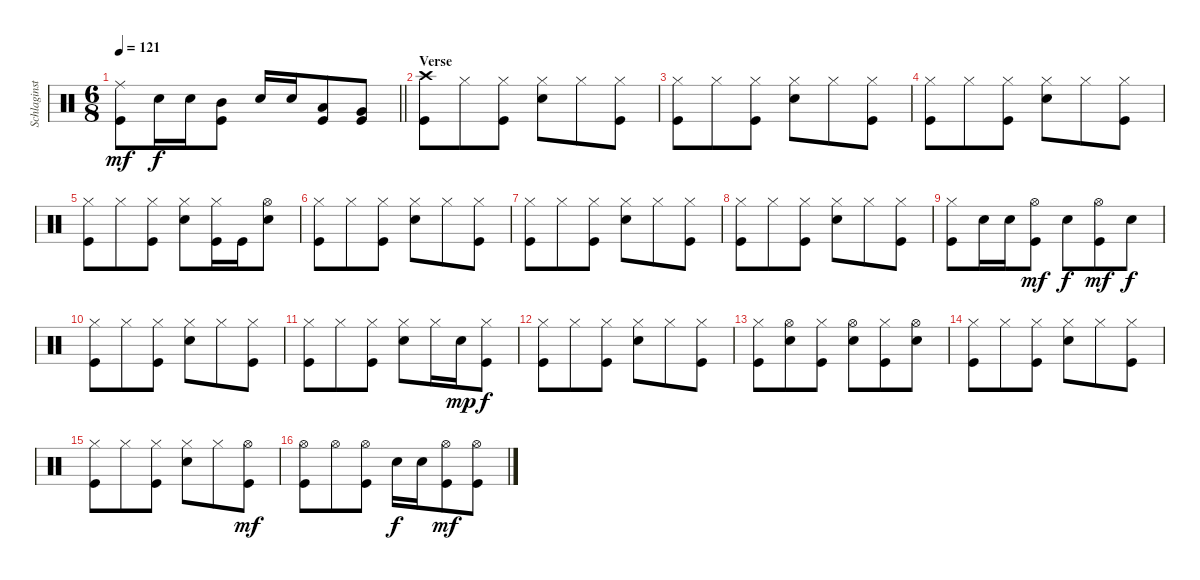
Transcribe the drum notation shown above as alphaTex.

\track ("Schlaginstrumente - Auswahl" "Schlaginst") {instrument percussion}
\staff {score}
\articulation defaults
\ts (6 8)
\tempo 121
\clef neutral
\barLineRight lightlight
\ks c
("Ride (middle)" "Kick (hit)").8{dy mf} "Snare (hit) 2".16{dy f} "Snare (hit) 2".16 ("Mid Tom (hit)" "Kick (hit)").8 "Snare (hit) 2".16 "Snare (hit) 2".16 ("Low Tom (hit)" "Kick (hit)").8 ("Very Low Tom (hit)" "Kick (hit)").8 |
\section ("" "Verse")
("Crash high (hit)" "Kick (hit)").8 "Hi-Hat (closed)".8 ("Hi-Hat (closed)" "Kick (hit)").8 ("Hi-Hat (closed)" "Snare (hit) 2").8 "Hi-Hat (closed)".8 ("Hi-Hat (closed)" "Kick (hit)").8 |
("Hi-Hat (closed)" "Kick (hit)").8 "Hi-Hat (closed)".8 ("Hi-Hat (closed)" "Kick (hit)").8 ("Hi-Hat (closed)" "Snare (hit) 2").8 "Hi-Hat (closed)".8 ("Hi-Hat (closed)" "Kick (hit)").8 |
("Hi-Hat (closed)" "Kick (hit)").8 "Hi-Hat (closed)".8 ("Hi-Hat (closed)" "Kick (hit)").8 ("Hi-Hat (closed)" "Snare (hit) 2").8 "Hi-Hat (closed)".8 ("Hi-Hat (closed)" "Kick (hit)").8 |
("Hi-Hat (closed)" "Kick (hit)").8 "Hi-Hat (closed)".8 ("Hi-Hat (closed)" "Kick (hit)").8 ("Hi-Hat (closed)" "Snare (hit) 2").8 ("Hi-Hat (closed)" "Kick (hit)").16 "Kick (hit)".16 ("Hi-Hat (open)" "Snare (hit) 2").8 |
("Hi-Hat (closed)" "Kick (hit)").8 "Hi-Hat (closed)".8 ("Hi-Hat (closed)" "Kick (hit)").8 ("Hi-Hat (closed)" "Snare (hit) 2").8 "Hi-Hat (closed)".8 ("Hi-Hat (closed)" "Kick (hit)").8 |
("Hi-Hat (closed)" "Kick (hit)").8 "Hi-Hat (closed)".8 ("Hi-Hat (closed)" "Kick (hit)").8 ("Hi-Hat (closed)" "Snare (hit) 2").8 "Hi-Hat (closed)".8 ("Hi-Hat (closed)" "Kick (hit)").8 |
("Hi-Hat (closed)" "Kick (hit)").8 "Hi-Hat (closed)".8 ("Hi-Hat (closed)" "Kick (hit)").8 ("Hi-Hat (closed)" "Snare (hit) 2").8 "Hi-Hat (closed)".8 ("Hi-Hat (closed)" "Kick (hit)").8 |
("Hi-Hat (closed)" "Kick (hit)").8 "Snare (hit) 2".16 "Snare (hit) 2".16 ("Kick (hit)" "Hi-Hat (open)").8{dy mf} "Snare (hit) 2".8{dy f} ("Kick (hit)" "Hi-Hat (open)").8{dy mf} "Snare (hit) 2".8{dy f} |
("Hi-Hat (closed)" "Kick (hit)").8 "Hi-Hat (closed)".8 ("Hi-Hat (closed)" "Kick (hit)").8 ("Hi-Hat (closed)" "Snare (hit) 2").8 "Hi-Hat (closed)".8 ("Hi-Hat (closed)" "Kick (hit)").8 |
("Hi-Hat (closed)" "Kick (hit)").8 "Hi-Hat (closed)".8 ("Hi-Hat (closed)" "Kick (hit)").8 ("Hi-Hat (closed)" "Snare (hit) 2").8 "Hi-Hat (closed)".16 "Snare (hit) 2".16{dy mp} ("Hi-Hat (closed)" "Kick (hit)").8{dy f} |
("Hi-Hat (closed)" "Kick (hit)").8 "Hi-Hat (closed)".8 ("Hi-Hat (closed)" "Kick (hit)").8 ("Hi-Hat (closed)" "Snare (hit) 2").8 "Hi-Hat (closed)".8 ("Hi-Hat (closed)" "Kick (hit)").8 |
("Hi-Hat (closed)" "Kick (hit)").8 ("Hi-Hat (open)" "Snare (hit) 2").8 ("Hi-Hat (closed)" "Kick (hit)").8 ("Hi-Hat (open)" "Snare (hit) 2").8 ("Hi-Hat (closed)" "Kick (hit)").8 ("Hi-Hat (open)" "Snare (hit) 2").8 |
("Hi-Hat (closed)" "Kick (hit)").8 "Hi-Hat (closed)".8 ("Hi-Hat (closed)" "Kick (hit)").8 ("Hi-Hat (closed)" "Snare (hit) 2").8 "Hi-Hat (closed)".8 ("Hi-Hat (closed)" "Kick (hit)").8 |
("Hi-Hat (closed)" "Kick (hit)").8 "Hi-Hat (closed)".8 ("Hi-Hat (closed)" "Kick (hit)").8 ("Hi-Hat (closed)" "Snare (hit) 2").8 "Hi-Hat (closed)".8 ("Hi-Hat (open)" "Kick (hit)").8{dy mf} |
("Hi-Hat (open)" "Kick (hit)").8 "Hi-Hat (open)".8 ("Hi-Hat (open)" "Kick (hit)").8 "Snare (hit) 2".16{dy f} "Snare (hit) 2".16 ("Hi-Hat (open)" "Kick (hit)").8{dy mf} ("Hi-Hat (open)" "Kick (hit)").8
